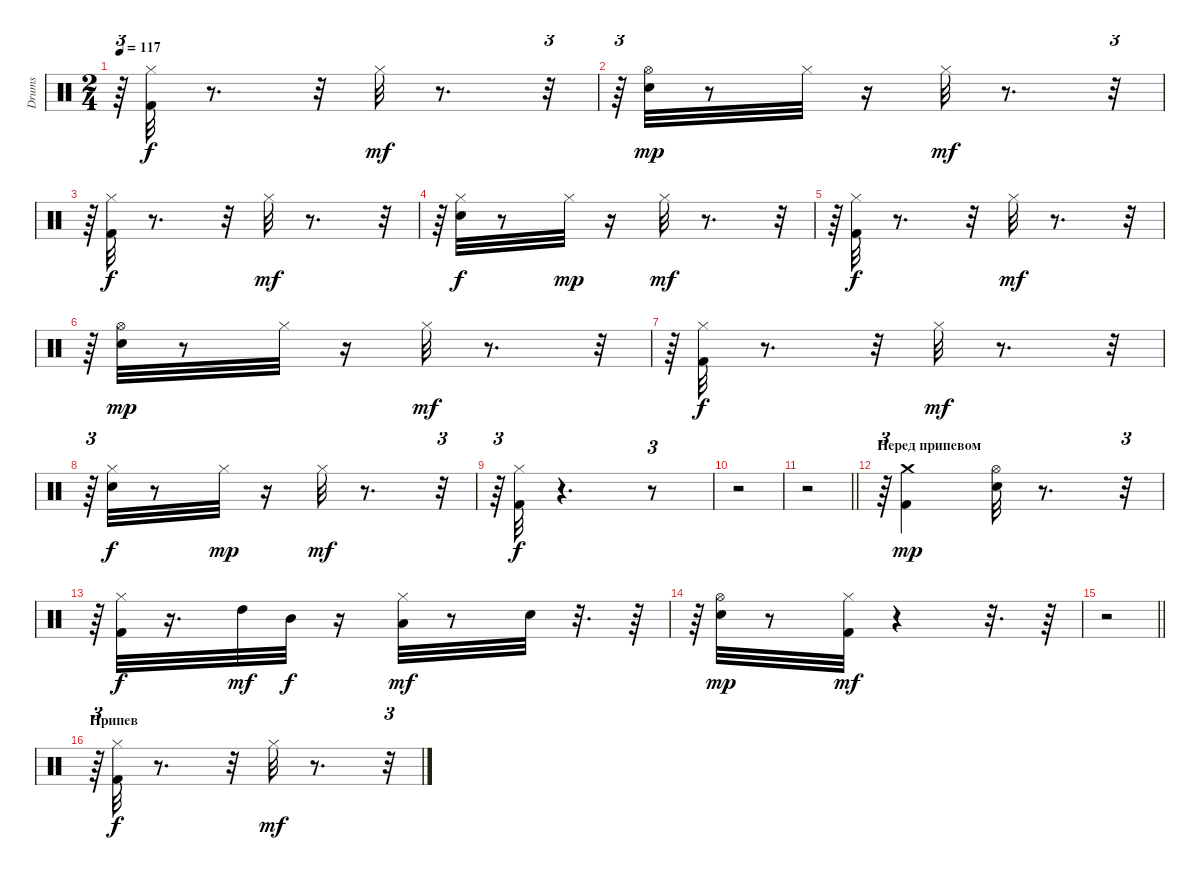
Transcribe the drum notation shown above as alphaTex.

\track ("Drums" "Drums") {instrument percussion}
\staff {score}
\articulation defaults
\ts (2 4)
\tempo 117
\clef neutral
\ks c
r.64{tu (3 2) dy mf} ("Kick (hit) 2" "Hi-Hat (closed)").32{dy f} r.8{d} r.32 "Hi-Hat (closed)".32{dy mf} r.8{d} r.32{tu (3 2)} |
r.64{tu (3 2)} ("Electric Snare (hit)" "Hi-Hat (open)").32{dy mp} r.8 "Hi-Hat (closed)".32 r.16 "Hi-Hat (closed)".32{dy mf} r.8{d} r.32{tu (3 2)} |
r.64{tu (3 2)} ("Kick (hit) 2" "Hi-Hat (closed)").32{dy f} r.8{d} r.32 "Hi-Hat (closed)".32{dy mf} r.8{d} r.32{tu (3 2)} |
r.64{tu (3 2)} ("Electric Snare (hit)" "Hi-Hat (closed)").32{dy f} r.8 "Hi-Hat (closed)".32{dy mp} r.16 "Hi-Hat (closed)".32{dy mf} r.8{d} r.32{tu (3 2)} |
r.64{tu (3 2)} ("Kick (hit) 2" "Hi-Hat (closed)").32{dy f} r.8{d} r.32 "Hi-Hat (closed)".32{dy mf} r.8{d} r.32{tu (3 2)} |
r.64{tu (3 2)} ("Electric Snare (hit)" "Hi-Hat (open)").32{dy mp} r.8 "Hi-Hat (closed)".32 r.16 "Hi-Hat (closed)".32{dy mf} r.8{d} r.32{tu (3 2)} |
r.64{tu (3 2)} ("Kick (hit) 2" "Hi-Hat (closed)").32{dy f} r.8{d} r.32 "Hi-Hat (closed)".32{dy mf} r.8{d} r.32{tu (3 2)} |
r.64{tu (3 2)} ("Electric Snare (hit)" "Hi-Hat (closed)").32{dy f} r.8 "Hi-Hat (closed)".32{dy mp} r.16 "Hi-Hat (closed)".32{dy mf} r.8{d} r.32{tu (3 2)} |
r.64{tu (3 2)} ("Kick (hit) 2" "Hi-Hat (closed)").32{dy f} r.4{d} r.8{tu (3 2)} |
r.2 |
\barLineRight lightlight
r.2 |
\section ("" "Перед припевом")
r.64{tu (3 2)} ("Kick (hit) 2" "Crash medium (hit)").4{dy mp} ("Electric Snare (hit)" "Hi-Hat (open)").32 r.8{d} r.32{tu (3 2)} |
r.64{tu (3 2)} ("Kick (hit) 2" "Hi-Hat (closed)").32{dy f} r.16{d} "High Tom (hit)".32{dy mf} "Mid Tom (hit)".32{dy f} r.16 ("Hi-Hat (closed)" "Low Tom (hit)").32{dy mf} r.8 "Electric Snare (hit)".32 r.32{d} r.64 |
r.64{tu (3 2)} ("Electric Snare (hit)" "Hi-Hat (open)").32{dy mp} r.8 ("Kick (hit) 2" "Hi-Hat (closed)").32{dy mf} r.4 r.32{d} r.64 |
\barLineRight lightlight
r.2 |
\section ("" "Припев")
r.64{tu (3 2)} ("Kick (hit) 2" "Hi-Hat (closed)").32{dy f} r.8{d} r.32 "Hi-Hat (closed)".32{dy mf} r.8{d} r.32{tu (3 2)}
